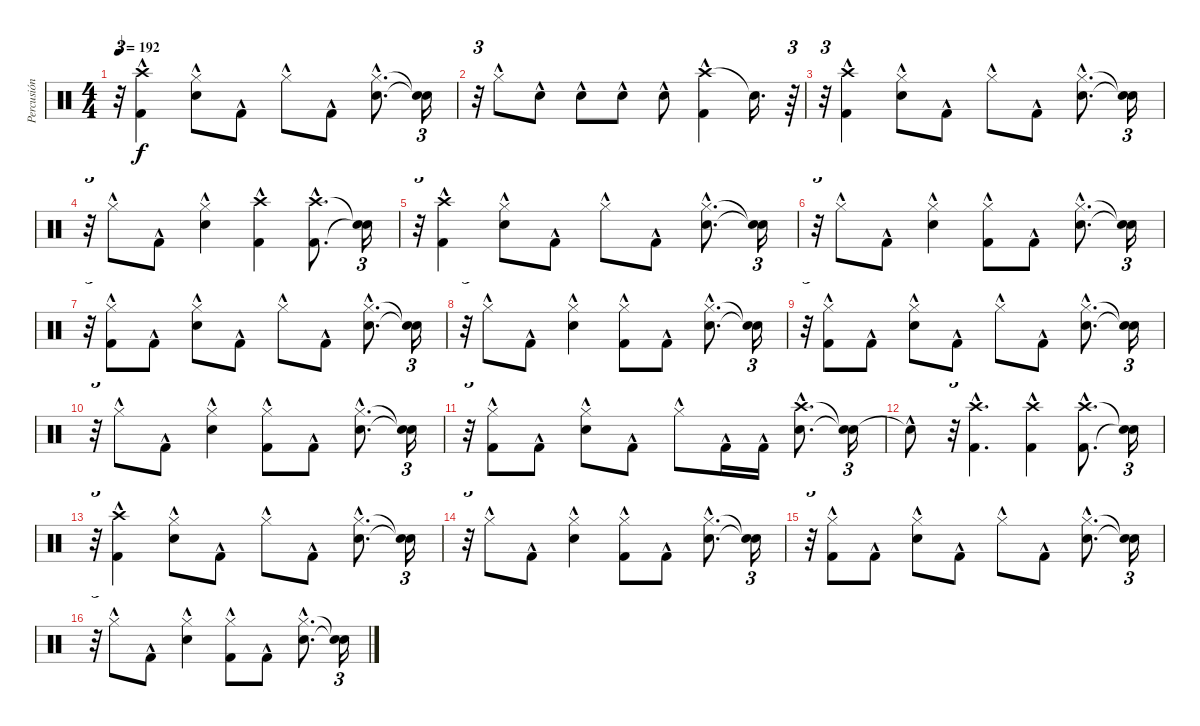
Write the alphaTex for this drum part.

\track ("Percusión" "Percusión") {instrument percussion}
\staff {score}
\articulation defaults
\ts (4 4)
\tempo 192
\clef neutral
\ks c
r.32{tu (3 2) dy f} ("Crash high (hit)"{hac} "Kick (hit) 2"{hac}).4 ("Snare (hit) 2"{hac} "Hi-Hat (closed)"{hac}).8 "Kick (hit) 2"{hac}.8 "Hi-Hat (closed)"{hac}.8 "Kick (hit) 2"{hac}.8 ("Snare (hit) 2"{hac} "Hi-Hat (closed)"{hac}).8{d} ("Snare (hit)"{t} "Snare (hit)"{t}).16{tu (3 2)} |
r.32{tu (3 2)} "Hi-Hat (closed)"{hac}.8 "Snare (hit) 2"{hac}.8 "Snare (hit) 2"{hac}.8 "Snare (hit) 2"{hac}.8 "Snare (hit) 2"{hac}.8 ("Crash high (hit)" "Kick (hit) 2"{hac}).4 "Snare (hit)"{t}.16{d} r.64{tu (3 2)} |
r.32{tu (3 2)} ("Crash high (hit)"{hac} "Kick (hit) 2"{hac}).4 ("Snare (hit) 2"{hac} "Hi-Hat (closed)"{hac}).8 "Kick (hit) 2"{hac}.8 "Hi-Hat (closed)"{hac}.8 "Kick (hit) 2"{hac}.8 ("Snare (hit) 2"{hac} "Hi-Hat (closed)"{hac}).8{d} ("Snare (hit)"{t} "Snare (hit)"{t}).16{tu (3 2)} |
r.32{tu (3 2)} "Hi-Hat (closed)"{hac}.8 "Kick (hit) 2"{hac}.8 ("Snare (hit) 2"{hac} "Hi-Hat (closed)"{hac}).4 ("Crash high (hit)"{hac} "Kick (hit) 2"{hac}).4 ("Kick (hit) 2"{hac} "Crash high (hit)"{hac}).8{d} ("Snare (hit)"{t} "Snare (hit)"{t}).16{tu (3 2)} |
r.32{tu (3 2)} ("Crash high (hit)"{hac} "Kick (hit) 2"{hac}).4 ("Snare (hit) 2"{hac} "Hi-Hat (closed)"{hac}).8 "Kick (hit) 2"{hac}.8 "Hi-Hat (closed)"{hac}.8 "Kick (hit) 2"{hac}.8 ("Snare (hit) 2"{hac} "Hi-Hat (closed)"{hac}).8{d} ("Snare (hit)"{t} "Snare (hit)"{t}).16{tu (3 2)} |
r.32{tu (3 2)} "Hi-Hat (closed)"{hac}.8 "Kick (hit) 2"{hac}.8 ("Hi-Hat (closed)"{hac} "Snare (hit) 2"{hac}).4 ("Kick (hit) 2"{hac} "Hi-Hat (closed)"{hac}).8 "Kick (hit) 2"{hac}.8 ("Hi-Hat (closed)"{hac} "Snare (hit) 2"{hac}).8{d} ("Snare (hit)"{t} "Snare (hit)"{t}).16{tu (3 2)} |
r.32{tu (3 2)} ("Kick (hit) 2"{hac} "Hi-Hat (closed)"{hac}).8 "Kick (hit) 2"{hac}.8 ("Snare (hit) 2"{hac} "Hi-Hat (closed)"{hac}).8 "Kick (hit) 2"{hac}.8 "Hi-Hat (closed)"{hac}.8 "Kick (hit) 2"{hac}.8 ("Hi-Hat (closed)"{hac} "Snare (hit) 2"{hac}).8{d} ("Snare (hit)"{t} "Snare (hit)"{t}).16{tu (3 2)} |
r.32{tu (3 2)} "Hi-Hat (closed)"{hac}.8 "Kick (hit) 2"{hac}.8 ("Snare (hit) 2"{hac} "Hi-Hat (closed)"{hac}).4 ("Kick (hit) 2"{hac} "Hi-Hat (closed)"{hac}).8 "Kick (hit) 2"{hac}.8 ("Hi-Hat (closed)"{hac} "Snare (hit) 2"{hac}).8{d} ("Snare (hit)"{t} "Snare (hit)"{t}).16{tu (3 2)} |
r.32{tu (3 2)} ("Kick (hit) 2"{hac} "Hi-Hat (closed)"{hac}).8 "Kick (hit) 2"{hac}.8 ("Snare (hit) 2"{hac} "Hi-Hat (closed)"{hac}).8 "Kick (hit) 2"{hac}.8 "Hi-Hat (closed)"{hac}.8 "Kick (hit) 2"{hac}.8 ("Hi-Hat (closed)"{hac} "Snare (hit) 2"{hac}).8{d} ("Snare (hit)"{t} "Snare (hit)"{t}).16{tu (3 2)} |
r.32{tu (3 2)} "Hi-Hat (closed)"{hac}.8 "Kick (hit) 2"{hac}.8 ("Snare (hit) 2"{hac} "Hi-Hat (closed)"{hac}).4 ("Hi-Hat (closed)"{hac} "Kick (hit) 2"{hac}).8 "Kick (hit) 2"{hac}.8 ("Snare (hit) 2"{hac} "Hi-Hat (closed)"{hac}).8{d} ("Snare (hit)"{t} "Snare (hit)"{t}).16{tu (3 2)} |
r.32{tu (3 2)} ("Kick (hit) 2"{hac} "Hi-Hat (closed)"{hac}).8 "Kick (hit) 2"{hac}.8 ("Snare (hit) 2"{hac} "Hi-Hat (closed)"{hac}).8 "Kick (hit) 2"{hac}.8 "Hi-Hat (closed)"{hac}.8 "Kick (hit) 2"{hac}.16 "Kick (hit) 2"{hac}.16 ("Crash high (hit)"{hac} "Snare (hit) 2"{hac}).8{d} ("Snare (hit)"{t} "Snare (hit)"{t}).16{tu (3 2)} |
"Snare (hit)"{hac t}.8 r.32{tu (3 2)} ("Kick (hit) 2"{hac} "Crash high (hit)").4{d} ("Kick (hit) 2"{hac} "Crash high (hit)"{hac}).4 ("Kick (hit) 2"{hac} "Crash high (hit)"{hac}).8{d} ("Snare (hit)"{t} "Snare (hit)"{t}).16{tu (3 2)} |
r.32{tu (3 2)} ("Kick (hit) 2"{hac} "Crash high (hit)"{hac}).4 ("Hi-Hat (closed)"{hac} "Snare (hit) 2"{hac}).8 "Kick (hit) 2"{hac}.8 "Hi-Hat (closed)"{hac}.8 "Kick (hit) 2"{hac}.8 ("Snare (hit) 2"{hac} "Hi-Hat (closed)"{hac}).8{d} ("Snare (hit)"{t} "Snare (hit)"{t}).16{tu (3 2)} |
r.32{tu (3 2)} "Hi-Hat (closed)"{hac}.8 "Kick (hit) 2"{hac}.8 ("Hi-Hat (closed)"{hac} "Snare (hit) 2"{hac}).4 ("Hi-Hat (closed)"{hac} "Kick (hit) 2"{hac}).8 "Kick (hit) 2"{hac}.8 ("Snare (hit) 2"{hac} "Hi-Hat (closed)"{hac}).8{d} ("Snare (hit)"{t} "Snare (hit)"{t}).16{tu (3 2)} |
r.32{tu (3 2)} ("Hi-Hat (closed)"{hac} "Kick (hit) 2"{hac}).8 "Kick (hit) 2"{hac}.8 ("Hi-Hat (closed)"{hac} "Snare (hit) 2"{hac}).8 "Kick (hit) 2"{hac}.8 "Hi-Hat (closed)"{hac}.8 "Kick (hit) 2"{hac}.8 ("Hi-Hat (closed)"{hac} "Snare (hit) 2"{hac}).8{d} ("Snare (hit)"{t} "Snare (hit)"{t}).16{tu (3 2)} |
r.32{tu (3 2)} "Hi-Hat (closed)"{hac}.8 "Kick (hit) 2"{hac}.8 ("Hi-Hat (closed)"{hac} "Snare (hit) 2"{hac}).4 ("Kick (hit) 2"{hac} "Hi-Hat (closed)"{hac}).8 "Kick (hit) 2"{hac}.8 ("Hi-Hat (closed)"{hac} "Snare (hit) 2"{hac}).8{d} ("Snare (hit)"{t} "Snare (hit)"{t}).16{tu (3 2)}
